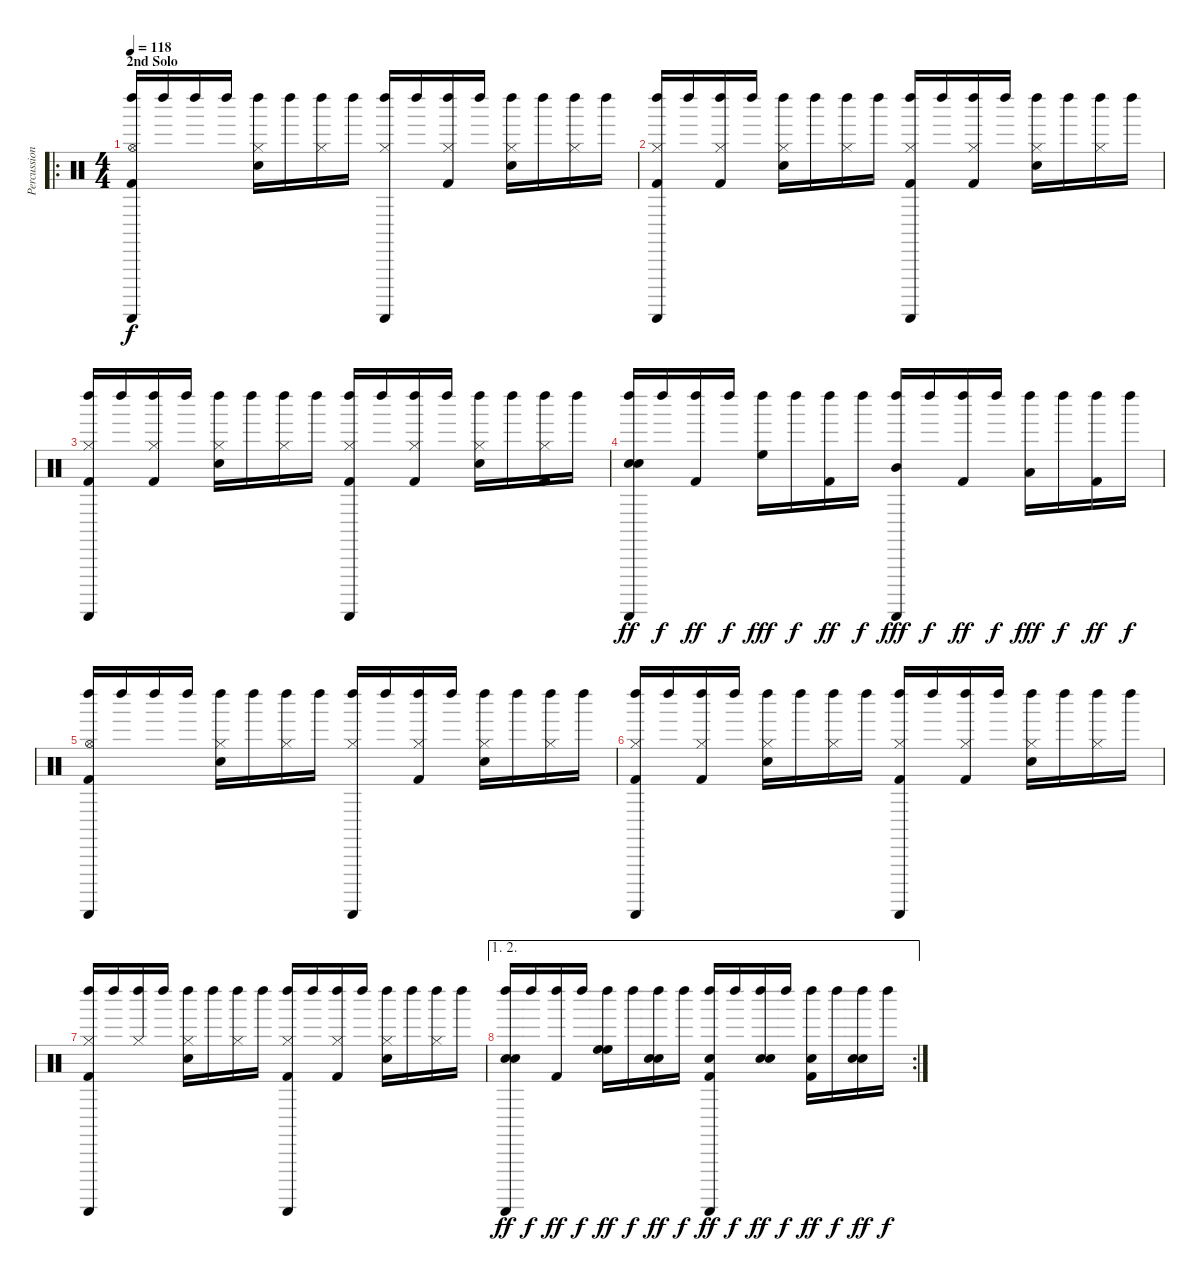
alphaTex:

\track ("Percussions" "Percussion") {instrument percussion}
\staff {score}
\articulation defaults
\ro
\ts (4 4)
\section ("" "2nd Solo")
\tempo 118
\clef neutral
\ks c
("Guiro (scrap-return)" "Left Maraca (hit)" "Hi-Hat (open)" "Kick (hit) 2").16{dy f} "Left Maraca (hit)".16 "Left Maraca (hit)".16 "Left Maraca (hit)".16 ("Left Maraca (hit)" "Hi-Hat (closed)" "Snare (hit) 2").16 "Left Maraca (hit)".16 ("Left Maraca (hit)" "Hi-Hat (closed)").16 "Left Maraca (hit)".16 ("Guiro (scrap-return)" "Left Maraca (hit)" "Hi-Hat (closed)").16 "Left Maraca (hit)".16 ("Left Maraca (hit)" "Hi-Hat (closed)" "Kick (hit) 2").16 "Left Maraca (hit)".16 ("Left Maraca (hit)" "Hi-Hat (closed)" "Snare (hit) 2").16 "Left Maraca (hit)".16 ("Left Maraca (hit)" "Hi-Hat (closed)").16 "Left Maraca (hit)".16 |
("Guiro (scrap-return)" "Left Maraca (hit)" "Hi-Hat (closed)" "Kick (hit) 2").16 "Left Maraca (hit)".16 ("Left Maraca (hit)" "Hi-Hat (closed)" "Kick (hit) 2").16 "Left Maraca (hit)".16 ("Left Maraca (hit)" "Hi-Hat (closed)" "Snare (hit) 2").16 "Left Maraca (hit)".16 ("Left Maraca (hit)" "Hi-Hat (closed)").16 "Left Maraca (hit)".16 ("Guiro (scrap-return)" "Left Maraca (hit)" "Hi-Hat (closed)" "Kick (hit) 2").16 "Left Maraca (hit)".16 ("Left Maraca (hit)" "Hi-Hat (closed)" "Kick (hit) 2").16 "Left Maraca (hit)".16 ("Left Maraca (hit)" "Hi-Hat (closed)" "Snare (hit) 2").16 "Left Maraca (hit)".16 ("Left Maraca (hit)" "Hi-Hat (closed)").16 "Left Maraca (hit)".16 |
("Guiro (scrap-return)" "Left Maraca (hit)" "Hi-Hat (closed)" "Kick (hit) 2").16 "Left Maraca (hit)".16 ("Left Maraca (hit)" "Hi-Hat (closed)" "Kick (hit) 2").16 "Left Maraca (hit)".16 ("Left Maraca (hit)" "Hi-Hat (closed)" "Snare (hit) 2").16 "Left Maraca (hit)".16 ("Left Maraca (hit)" "Hi-Hat (closed)").16 "Left Maraca (hit)".16 ("Guiro (scrap-return)" "Left Maraca (hit)" "Hi-Hat (closed)" "Kick (hit) 2").16 "Left Maraca (hit)".16 ("Left Maraca (hit)" "Hi-Hat (closed)" "Kick (hit) 2").16 "Left Maraca (hit)".16 ("Left Maraca (hit)" "Hi-Hat (closed)" "Snare (hit) 2").16 "Left Maraca (hit)".16 ("Left Maraca (hit)" "Hi-Hat (closed)" "Kick (hit) 2").16 "Left Maraca (hit)".16 |
("Guiro (scrap-return)" "Left Maraca (hit)" "Snare (hit) 2" "Snare (hit) 2").16{dy ff} "Left Maraca (hit)".16{dy f} ("Left Maraca (hit)" "Kick (hit) 2").16{dy ff} "Left Maraca (hit)".16{dy f} ("Left Maraca (hit)" "High Floor Tom (hit)").16{dy fff} "Left Maraca (hit)".16{dy f} ("Left Maraca (hit)" "Kick (hit) 2").16{dy ff} "Left Maraca (hit)".16{dy f} ("Guiro (scrap-return)" "Left Maraca (hit)" "Mid Tom (hit)").16{dy fff} "Left Maraca (hit)".16{dy f} ("Left Maraca (hit)" "Kick (hit) 2").16{dy ff} "Left Maraca (hit)".16{dy f} ("Left Maraca (hit)" "Low Tom (hit)").16{dy fff} "Left Maraca (hit)".16{dy f} ("Left Maraca (hit)" "Kick (hit) 2").16{dy ff} "Left Maraca (hit)".16{dy f} |
("Guiro (scrap-return)" "Left Maraca (hit)" "Hi-Hat (open)" "Kick (hit) 2").16 "Left Maraca (hit)".16 "Left Maraca (hit)".16 "Left Maraca (hit)".16 ("Left Maraca (hit)" "Hi-Hat (closed)" "Snare (hit) 2").16 "Left Maraca (hit)".16 ("Left Maraca (hit)" "Hi-Hat (closed)").16 "Left Maraca (hit)".16 ("Guiro (scrap-return)" "Left Maraca (hit)" "Hi-Hat (closed)").16 "Left Maraca (hit)".16 ("Left Maraca (hit)" "Hi-Hat (closed)" "Kick (hit) 2").16 "Left Maraca (hit)".16 ("Left Maraca (hit)" "Hi-Hat (closed)" "Snare (hit) 2").16 "Left Maraca (hit)".16 ("Left Maraca (hit)" "Hi-Hat (closed)").16 "Left Maraca (hit)".16 |
("Guiro (scrap-return)" "Left Maraca (hit)" "Hi-Hat (closed)" "Kick (hit) 2").16 "Left Maraca (hit)".16 ("Left Maraca (hit)" "Hi-Hat (closed)" "Kick (hit) 2").16 "Left Maraca (hit)".16 ("Left Maraca (hit)" "Hi-Hat (closed)" "Snare (hit) 2").16 "Left Maraca (hit)".16 ("Left Maraca (hit)" "Hi-Hat (closed)").16 "Left Maraca (hit)".16 ("Guiro (scrap-return)" "Left Maraca (hit)" "Hi-Hat (closed)" "Kick (hit) 2").16 "Left Maraca (hit)".16 ("Left Maraca (hit)" "Hi-Hat (closed)" "Kick (hit) 2").16 "Left Maraca (hit)".16 ("Left Maraca (hit)" "Hi-Hat (closed)" "Snare (hit) 2").16 "Left Maraca (hit)".16 ("Left Maraca (hit)" "Hi-Hat (closed)").16 "Left Maraca (hit)".16 |
("Guiro (scrap-return)" "Left Maraca (hit)" "Hi-Hat (closed)" "Kick (hit) 2").16 "Left Maraca (hit)".16 ("Left Maraca (hit)" "Hi-Hat (closed)").16 "Left Maraca (hit)".16 ("Left Maraca (hit)" "Hi-Hat (closed)" "Snare (hit) 2").16 "Left Maraca (hit)".16 ("Left Maraca (hit)" "Hi-Hat (closed)").16 "Left Maraca (hit)".16 ("Guiro (scrap-return)" "Left Maraca (hit)" "Hi-Hat (closed)" "Kick (hit) 2").16 "Left Maraca (hit)".16 ("Left Maraca (hit)" "Hi-Hat (closed)" "Kick (hit) 2").16 "Left Maraca (hit)".16 ("Left Maraca (hit)" "Hi-Hat (closed)" "Snare (hit) 2").16 "Left Maraca (hit)".16 ("Left Maraca (hit)" "Hi-Hat (closed)").16 "Left Maraca (hit)".16 |
\ae (1 2)
\rc 2
("Guiro (scrap-return)" "Left Maraca (hit)" "Snare (hit) 2" "Snare (hit) 2").16{dy ff} "Left Maraca (hit)".16{dy f} ("Left Maraca (hit)" "Kick (hit) 2").16{dy ff} "Left Maraca (hit)".16{dy f} ("Left Maraca (hit)" "High Floor Tom (hit)" "High Floor Tom (hit)").16{dy ff} "Left Maraca (hit)".16{dy f} ("Left Maraca (hit)" "Snare (hit) 2" "Snare (hit) 2").16{dy ff} "Left Maraca (hit)".16{dy f} ("Guiro (scrap-return)" "Left Maraca (hit)" "Snare (hit) 2" "Kick (hit) 2").16{dy ff} "Left Maraca (hit)".16{dy f} ("Left Maraca (hit)" "Snare (hit) 2" "Snare (hit) 2").16{dy ff} "Left Maraca (hit)".16{dy f} ("Left Maraca (hit)" "Snare (hit) 2" "Kick (hit) 2").16{dy ff} "Left Maraca (hit)".16{dy f} ("Left Maraca (hit)" "Snare (hit) 2" "Snare (hit) 2").16{dy ff} "Left Maraca (hit)".16{dy f}
